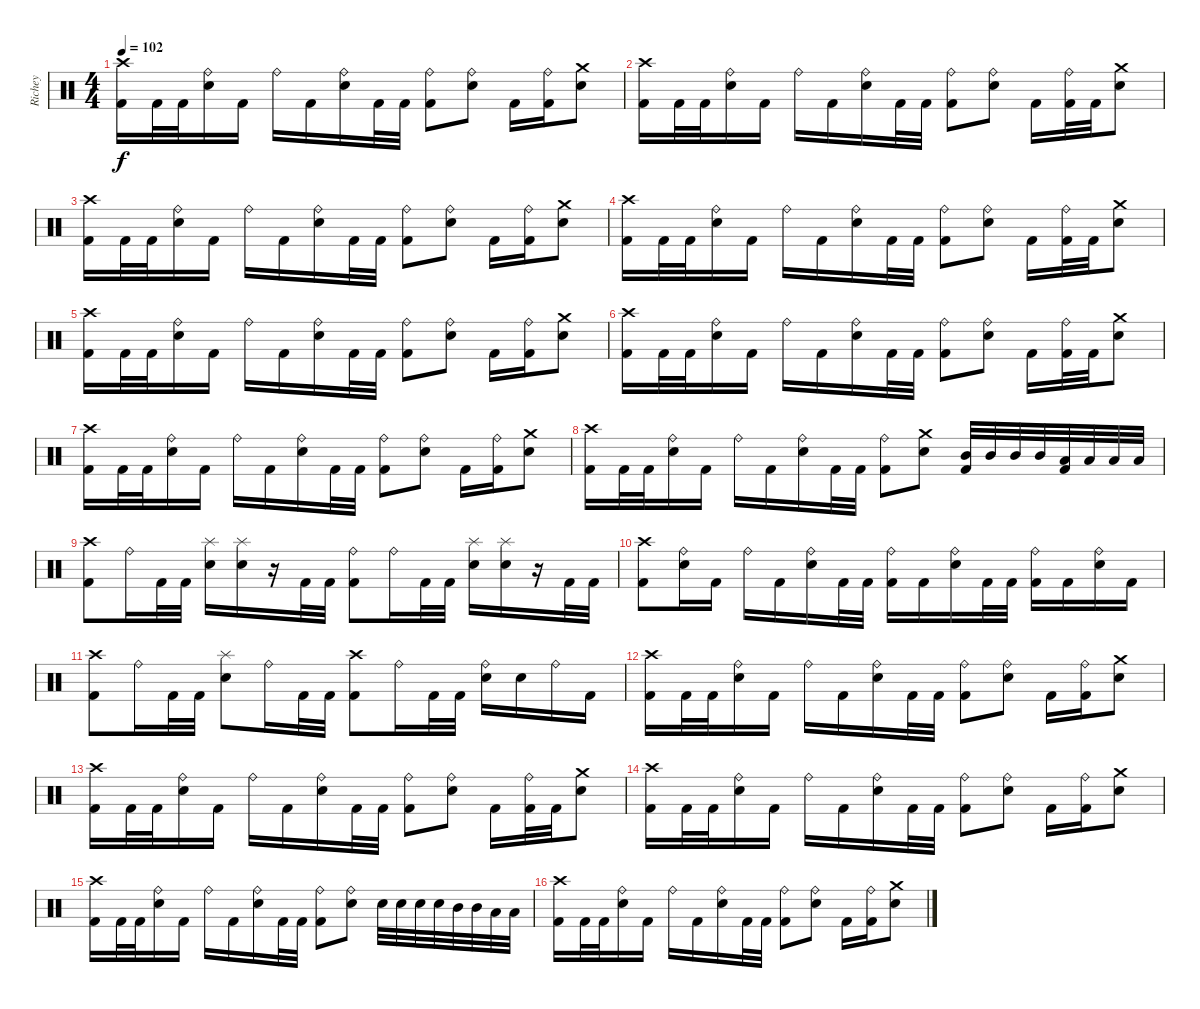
\track ("Richey" "Richey") {instrument percussion}
\staff {score}
\articulation defaults
\ts (4 4)
\tempo 102
\clef neutral
\ks c
("Crash high (hit)" "Kick (hit) 2").16{dy f} "Kick (hit) 2".32 "Kick (hit) 2".32 ("Ride (bell)" "Snare (hit) 2").16 "Kick (hit) 2".16 "Ride (bell)".16 "Kick (hit) 2".16 ("Ride (bell)" "Snare (hit) 2").16 "Kick (hit) 2".32 "Kick (hit) 2".32 ("Ride (bell)" "Kick (hit) 2").8 ("Ride (bell)" "Snare (hit) 2").8 "Kick (hit) 2".16 ("Ride (bell)" "Kick (hit) 2").16 ("Crash medium (hit)" "Snare (hit) 2").8 |
("Crash high (hit)" "Kick (hit) 2").16 "Kick (hit) 2".32 "Kick (hit) 2".32 ("Ride (bell)" "Snare (hit) 2").16 "Kick (hit) 2".16 "Ride (bell)".16 "Kick (hit) 2".16 ("Ride (bell)" "Snare (hit) 2").16 "Kick (hit) 2".32 "Kick (hit) 2".32 ("Ride (bell)" "Kick (hit) 2").8 ("Ride (bell)" "Snare (hit) 2").8 "Kick (hit) 2".16 ("Ride (bell)" "Kick (hit) 2").32 "Kick (hit) 2".32 ("Crash medium (hit)" "Snare (hit) 2").8 |
("Crash high (hit)" "Kick (hit) 2").16 "Kick (hit) 2".32 "Kick (hit) 2".32 ("Ride (bell)" "Snare (hit) 2").16 "Kick (hit) 2".16 "Ride (bell)".16 "Kick (hit) 2".16 ("Ride (bell)" "Snare (hit) 2").16 "Kick (hit) 2".32 "Kick (hit) 2".32 ("Ride (bell)" "Kick (hit) 2").8 ("Ride (bell)" "Snare (hit) 2").8 "Kick (hit) 2".16 ("Ride (bell)" "Kick (hit) 2").16 ("Crash medium (hit)" "Snare (hit) 2").8 |
("Crash high (hit)" "Kick (hit) 2").16 "Kick (hit) 2".32 "Kick (hit) 2".32 ("Ride (bell)" "Snare (hit) 2").16 "Kick (hit) 2".16 "Ride (bell)".16 "Kick (hit) 2".16 ("Ride (bell)" "Snare (hit) 2").16 "Kick (hit) 2".32 "Kick (hit) 2".32 ("Ride (bell)" "Kick (hit) 2").8 ("Ride (bell)" "Snare (hit) 2").8 "Kick (hit) 2".16 ("Ride (bell)" "Kick (hit) 2").32 "Kick (hit) 2".32 ("Crash medium (hit)" "Snare (hit) 2").8 |
("Crash high (hit)" "Kick (hit) 2").16 "Kick (hit) 2".32 "Kick (hit) 2".32 ("Ride (bell)" "Snare (hit) 2").16 "Kick (hit) 2".16 "Ride (bell)".16 "Kick (hit) 2".16 ("Ride (bell)" "Snare (hit) 2").16 "Kick (hit) 2".32 "Kick (hit) 2".32 ("Ride (bell)" "Kick (hit) 2").8 ("Ride (bell)" "Snare (hit) 2").8 "Kick (hit) 2".16 ("Ride (bell)" "Kick (hit) 2").16 ("Crash medium (hit)" "Snare (hit) 2").8 |
("Crash high (hit)" "Kick (hit) 2").16 "Kick (hit) 2".32 "Kick (hit) 2".32 ("Ride (bell)" "Snare (hit) 2").16 "Kick (hit) 2".16 "Ride (bell)".16 "Kick (hit) 2".16 ("Ride (bell)" "Snare (hit) 2").16 "Kick (hit) 2".32 "Kick (hit) 2".32 ("Ride (bell)" "Kick (hit) 2").8 ("Ride (bell)" "Snare (hit) 2").8 "Kick (hit) 2".16 ("Ride (bell)" "Kick (hit) 2").32 "Kick (hit) 2".32 ("Crash medium (hit)" "Snare (hit) 2").8 |
("Crash high (hit)" "Kick (hit) 2").16 "Kick (hit) 2".32 "Kick (hit) 2".32 ("Ride (bell)" "Snare (hit) 2").16 "Kick (hit) 2".16 "Ride (bell)".16 "Kick (hit) 2".16 ("Ride (bell)" "Snare (hit) 2").16 "Kick (hit) 2".32 "Kick (hit) 2".32 ("Ride (bell)" "Kick (hit) 2").8 ("Ride (bell)" "Snare (hit) 2").8 "Kick (hit) 2".16 ("Ride (bell)" "Kick (hit) 2").16 ("Crash medium (hit)" "Snare (hit) 2").8 |
("Crash high (hit)" "Kick (hit) 2").16 "Kick (hit) 2".32 "Kick (hit) 2".32 ("Ride (bell)" "Snare (hit) 2").16 "Kick (hit) 2".16 "Ride (bell)".16 "Kick (hit) 2".16 ("Ride (bell)" "Snare (hit) 2").16 "Kick (hit) 2".32 "Kick (hit) 2".32 ("Ride (bell)" "Kick (hit) 2").8 ("Crash medium (hit)" "Snare (hit) 2").8 ("Mid Tom (hit)" "Kick (hit) 2").32 "Mid Tom (hit)".32 "Mid Tom (hit)".32 "Mid Tom (hit)".32 ("Low Tom (hit)" "Kick (hit) 2").32 "Low Tom (hit)".32 "Low Tom (hit)".32 "Low Tom (hit)".32 |
("Crash high (hit)" "Kick (hit) 2").8 "Ride (bell)".16 "Kick (hit) 2".32 "Kick (hit) 2".32 ("Splash (hit)" "Snare (hit) 2").16 ("Splash (hit)" "Snare (hit) 2").16 r.16 "Kick (hit) 2".32 "Kick (hit) 2".32 ("Ride (bell)" "Kick (hit) 2").8 "Ride (bell)".16 "Kick (hit) 2".32 "Kick (hit) 2".32 ("Splash (hit)" "Snare (hit) 2").16 ("Splash (hit)" "Snare (hit) 2").16 r.16 "Kick (hit) 2".32 "Kick (hit) 2".32 |
("Crash high (hit)" "Kick (hit) 2").8 ("Ride (bell)" "Snare (hit) 2").16 "Kick (hit) 2".16 "Ride (bell)".16 "Kick (hit) 2".16 ("Ride (bell)" "Snare (hit) 2").16 "Kick (hit) 2".32 "Kick (hit) 2".32 ("Ride (bell)" "Kick (hit) 2").16 "Kick (hit) 2".16 ("Ride (bell)" "Snare (hit) 2").16 "Kick (hit) 2".32 "Kick (hit) 2".32 ("Ride (bell)" "Kick (hit) 2").16 "Kick (hit) 2".16 ("Ride (bell)" "Snare (hit) 2").16 "Kick (hit) 2".16 |
("Crash high (hit)" "Kick (hit) 2").8 "Ride (bell)".16 "Kick (hit) 2".32 "Kick (hit) 2".32 ("Splash (hit)" "Snare (hit) 2").8 "Ride (bell)".16 "Kick (hit) 2".32 "Kick (hit) 2".32 ("Crash high (hit)" "Kick (hit) 2").8 "Ride (bell)".16 "Kick (hit) 2".32 "Kick (hit) 2".32 ("Ride (bell)" "Snare (hit) 2").16 "Snare (hit) 2".16 "Ride (bell)".16 "Kick (hit) 2".16 |
("Crash high (hit)" "Kick (hit) 2").16 "Kick (hit) 2".32 "Kick (hit) 2".32 ("Ride (bell)" "Snare (hit) 2").16 "Kick (hit) 2".16 "Ride (bell)".16 "Kick (hit) 2".16 ("Ride (bell)" "Snare (hit) 2").16 "Kick (hit) 2".32 "Kick (hit) 2".32 ("Ride (bell)" "Kick (hit) 2").8 ("Ride (bell)" "Snare (hit) 2").8 "Kick (hit) 2".16 ("Ride (bell)" "Kick (hit) 2").16 ("Crash medium (hit)" "Snare (hit) 2").8 |
("Crash high (hit)" "Kick (hit) 2").16 "Kick (hit) 2".32 "Kick (hit) 2".32 ("Ride (bell)" "Snare (hit) 2").16 "Kick (hit) 2".16 "Ride (bell)".16 "Kick (hit) 2".16 ("Ride (bell)" "Snare (hit) 2").16 "Kick (hit) 2".32 "Kick (hit) 2".32 ("Ride (bell)" "Kick (hit) 2").8 ("Ride (bell)" "Snare (hit) 2").8 "Kick (hit) 2".16 ("Ride (bell)" "Kick (hit) 2").32 "Kick (hit) 2".32 ("Crash medium (hit)" "Snare (hit) 2").8 |
("Crash high (hit)" "Kick (hit) 2").16 "Kick (hit) 2".32 "Kick (hit) 2".32 ("Ride (bell)" "Snare (hit) 2").16 "Kick (hit) 2".16 "Ride (bell)".16 "Kick (hit) 2".16 ("Ride (bell)" "Snare (hit) 2").16 "Kick (hit) 2".32 "Kick (hit) 2".32 ("Ride (bell)" "Kick (hit) 2").8 ("Ride (bell)" "Snare (hit) 2").8 "Kick (hit) 2".16 ("Ride (bell)" "Kick (hit) 2").16 ("Crash medium (hit)" "Snare (hit) 2").8 |
("Crash high (hit)" "Kick (hit) 2").16 "Kick (hit) 2".32 "Kick (hit) 2".32 ("Ride (bell)" "Snare (hit) 2").16 "Kick (hit) 2".16 "Ride (bell)".16 "Kick (hit) 2".16 ("Ride (bell)" "Snare (hit) 2").16 "Kick (hit) 2".32 "Kick (hit) 2".32 ("Ride (bell)" "Kick (hit) 2").8 ("Ride (bell)" "Snare (hit) 2").8 "Snare (hit) 2".32 "Snare (hit) 2".32 "Snare (hit) 2".32 "Snare (hit) 2".32 "Mid Tom (hit)".32 "Mid Tom (hit)".32 "Low Tom (hit)".32 "Low Tom (hit)".32 |
("Crash high (hit)" "Kick (hit) 2").16 "Kick (hit) 2".32 "Kick (hit) 2".32 ("Ride (bell)" "Snare (hit) 2").16 "Kick (hit) 2".16 "Ride (bell)".16 "Kick (hit) 2".16 ("Ride (bell)" "Snare (hit) 2").16 "Kick (hit) 2".32 "Kick (hit) 2".32 ("Ride (bell)" "Kick (hit) 2").8 ("Ride (bell)" "Snare (hit) 2").8 "Kick (hit) 2".16 ("Ride (bell)" "Kick (hit) 2").16 ("Crash medium (hit)" "Snare (hit) 2").8
